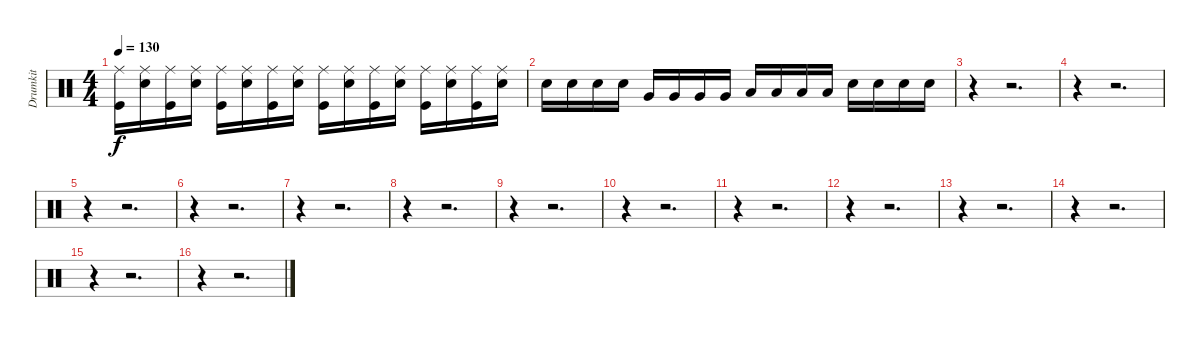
\track ("Drumkit" "Drumkit") {instrument percussion}
\staff {score}
\articulation defaults
\ts (4 4)
\tempo 130
\clef neutral
\ks c
("Ride (middle)" "Kick (hit)").16{dy f} ("Ride (middle)" "Snare (hit) 2").16 ("Ride (middle)" "Kick (hit)").16 ("Ride (middle)" "Snare (hit) 2").16 ("Ride (middle)" "Kick (hit)").16 ("Ride (middle)" "Snare (hit) 2").16 ("Ride (middle)" "Kick (hit)").16 ("Ride (middle)" "Snare (hit) 2").16 ("Ride (middle)" "Kick (hit)").16 ("Ride (middle)" "Snare (hit) 2").16 ("Ride (middle)" "Kick (hit)").16 ("Ride (middle)" "Snare (hit) 2").16 ("Ride (middle)" "Kick (hit)").16 ("Ride (middle)" "Snare (hit) 2").16 ("Ride (middle)" "Kick (hit)").16 ("Ride (middle)" "Snare (hit) 2").16 |
"Snare (hit) 2".16 "Snare (hit) 2".16 "Snare (hit) 2".16 "Snare (hit) 2".16 "Very Low Tom (hit)".16 "Very Low Tom (hit)".16 "Very Low Tom (hit)".16 "Very Low Tom (hit)".16 "Low Tom (hit)".16 "Low Tom (hit)".16 "Low Tom (hit)".16 "Low Tom (hit)".16 "Snare (hit) 2".16 "Snare (hit) 2".16 "Snare (hit) 2".16 "Snare (hit) 2".16 |
r.4 r.2{d} |
r.4 r.2{d} |
r.4 r.2{d} |
r.4 r.2{d} |
r.4 r.2{d} |
r.4 r.2{d} |
r.4 r.2{d} |
r.4 r.2{d} |
r.4 r.2{d} |
r.4 r.2{d} |
r.4 r.2{d} |
r.4 r.2{d} |
r.4 r.2{d} |
r.4 r.2{d}
